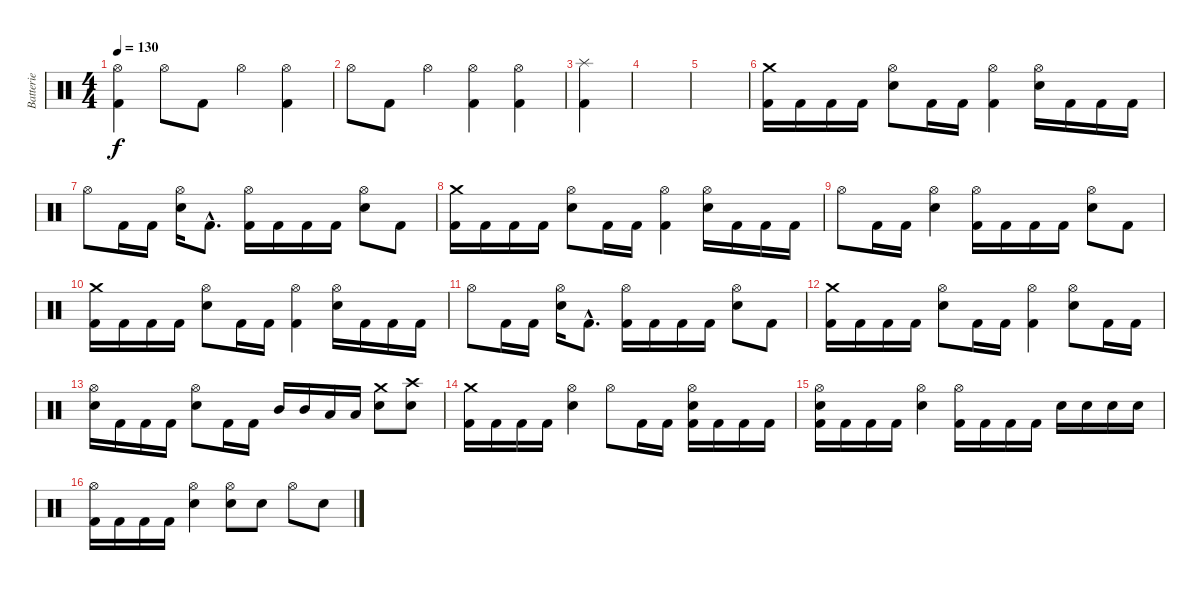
\track ("Batterie" "Batterie") {instrument percussion}
\staff {score}
\articulation defaults
\ts (4 4)
\tempo 130
\clef neutral
\ks c
("Hi-Hat (open)" "Kick (hit) 2").4{dy f} "Hi-Hat (open)".8 "Kick (hit) 2".8 "Hi-Hat (open)".4 ("Hi-Hat (open)" "Kick (hit) 2").4 |
"Hi-Hat (open)".8 "Kick (hit) 2".8 "Hi-Hat (open)".4 ("Hi-Hat (open)" "Kick (hit) 2").4 ("Hi-Hat (open)" "Kick (hit) 2").4 |
("Splash (hit)" "Kick (hit) 2").4 |
|
|
("Crash medium (hit)" "Kick (hit) 2").16 "Kick (hit) 2".16 "Kick (hit) 2".16 "Kick (hit) 2".16 ("Hi-Hat (open)" "Snare (hit) 2").8 "Kick (hit) 2".16 "Kick (hit) 2".16 ("Hi-Hat (open)" "Kick (hit) 2").4 ("Hi-Hat (open)" "Snare (hit) 2").16 "Kick (hit) 2".16 "Kick (hit) 2".16 "Kick (hit) 2".16 |
"Hi-Hat (open)".8 "Kick (hit) 2".16 "Kick (hit) 2".16 ("Hi-Hat (open)" "Snare (hit) 2").16 "Kick (hit) 2"{hac}.8{d} ("Hi-Hat (open)" "Kick (hit) 2").16 "Kick (hit) 2".16 "Kick (hit) 2".16 "Kick (hit) 2".16 ("Hi-Hat (open)" "Snare (hit) 2").8 "Kick (hit) 2".8 |
("Crash medium (hit)" "Kick (hit) 2").16 "Kick (hit) 2".16 "Kick (hit) 2".16 "Kick (hit) 2".16 ("Hi-Hat (open)" "Snare (hit) 2").8 "Kick (hit) 2".16 "Kick (hit) 2".16 ("Hi-Hat (open)" "Kick (hit) 2").4 ("Hi-Hat (open)" "Snare (hit) 2").16 "Kick (hit) 2".16 "Kick (hit) 2".16 "Kick (hit) 2".16 |
"Hi-Hat (open)".8 "Kick (hit) 2".16 "Kick (hit) 2".16 ("Hi-Hat (open)" "Snare (hit) 2").4 ("Hi-Hat (open)" "Kick (hit) 2").16 "Kick (hit) 2".16 "Kick (hit) 2".16 "Kick (hit) 2".16 ("Hi-Hat (open)" "Snare (hit) 2").8 "Kick (hit) 2".8 |
("Crash medium (hit)" "Kick (hit) 2").16 "Kick (hit) 2".16 "Kick (hit) 2".16 "Kick (hit) 2".16 ("Hi-Hat (open)" "Snare (hit) 2").8 "Kick (hit) 2".16 "Kick (hit) 2".16 ("Hi-Hat (open)" "Kick (hit) 2").4 ("Hi-Hat (open)" "Snare (hit) 2").16 "Kick (hit) 2".16 "Kick (hit) 2".16 "Kick (hit) 2".16 |
"Hi-Hat (open)".8 "Kick (hit) 2".16 "Kick (hit) 2".16 ("Hi-Hat (open)" "Snare (hit) 2").16 "Kick (hit) 2"{hac}.8{d} ("Hi-Hat (open)" "Kick (hit) 2").16 "Kick (hit) 2".16 "Kick (hit) 2".16 "Kick (hit) 2".16 ("Hi-Hat (open)" "Snare (hit) 2").8 "Kick (hit) 2".8 |
("Crash medium (hit)" "Kick (hit) 2").16 "Kick (hit) 2".16 "Kick (hit) 2".16 "Kick (hit) 2".16 ("Hi-Hat (open)" "Snare (hit) 2").8 "Kick (hit) 2".16 "Kick (hit) 2".16 ("Hi-Hat (open)" "Kick (hit) 2").4 ("Hi-Hat (open)" "Snare (hit) 2").8 "Kick (hit) 2".16 "Kick (hit) 2".16 |
("Hi-Hat (open)" "Snare (hit) 2").16 "Kick (hit) 2".16 "Kick (hit) 2".16 "Kick (hit) 2".16 ("Hi-Hat (open)" "Snare (hit) 2").8 "Kick (hit) 2".16 "Kick (hit) 2".16 "Mid Tom (hit)".16 "Mid Tom (hit)".16 "Low Tom (hit)".16 "Low Tom (hit)".16 ("Crash medium (hit)" "Snare (hit) 2").8 ("Crash high (hit)" "Snare (hit) 2").8 |
("Crash medium (hit)" "Kick (hit) 2").16 "Kick (hit) 2".16 "Kick (hit) 2".16 "Kick (hit) 2".16 ("Hi-Hat (open)" "Snare (hit) 2").4 "Hi-Hat (open)".8 "Kick (hit) 2".16 "Kick (hit) 2".16 ("Hi-Hat (open)" "Snare (hit) 2" "Kick (hit) 2").16 "Kick (hit) 2".16 "Kick (hit) 2".16 "Kick (hit) 2".16 |
("Hi-Hat (open)" "Snare (hit) 2" "Kick (hit) 2").16 "Kick (hit) 2".16 "Kick (hit) 2".16 "Kick (hit) 2".16 ("Hi-Hat (open)" "Snare (hit) 2").4 ("Hi-Hat (open)" "Kick (hit) 2").16 "Kick (hit) 2".16 "Kick (hit) 2".16 "Kick (hit) 2".16 "Snare (hit) 2".16 "Snare (hit) 2".16 "Snare (hit) 2".16 "Snare (hit) 2".16 |
("Hi-Hat (open)" "Kick (hit) 2").16 "Kick (hit) 2".16 "Kick (hit) 2".16 "Kick (hit) 2".16 ("Hi-Hat (open)" "Snare (hit) 2").4 ("Hi-Hat (open)" "Snare (hit) 2").8 "Snare (hit) 2".8 "Hi-Hat (open)".8 "Snare (hit) 2".8
